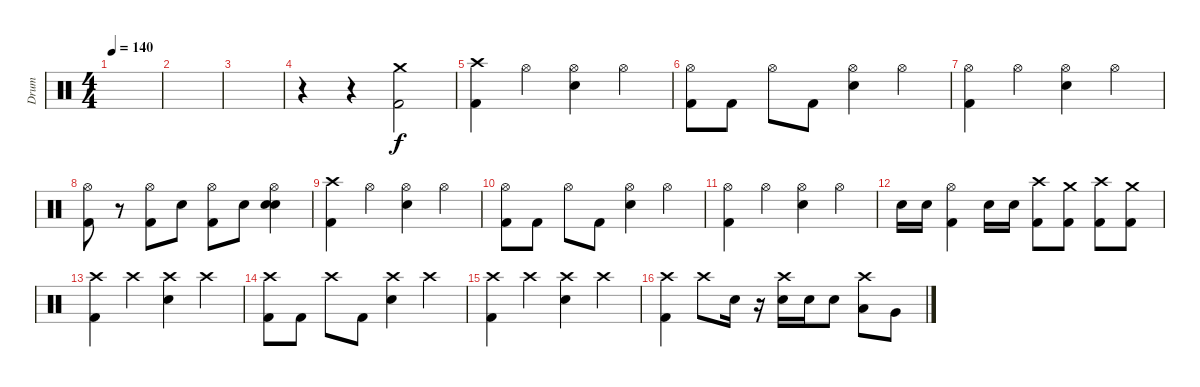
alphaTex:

\track ("Drum" "Drum") {instrument percussion}
\staff {score}
\articulation defaults
\ts (4 4)
\tempo 140
\clef neutral
\ks c
|
|
|
r.4 r.4 ("Crash medium (hit)" "Kick (hit) 2").2 |
("Crash high (hit)" "Kick (hit) 2").4 "Hi-Hat (open)".4 ("Hi-Hat (open)" "Electric Snare (hit)").4 "Hi-Hat (open)".4 |
("Hi-Hat (open)" "Kick (hit) 2").8 "Kick (hit) 2".8 "Hi-Hat (open)".8 "Kick (hit) 2".8 ("Hi-Hat (open)" "Electric Snare (hit)").4 "Hi-Hat (open)".4 |
("Hi-Hat (open)" "Kick (hit) 2").4 "Hi-Hat (open)".4 ("Hi-Hat (open)" "Electric Snare (hit)").4 "Hi-Hat (open)".4 |
("Hi-Hat (open)" "Kick (hit) 2").8 r.8 ("Hi-Hat (open)" "Kick (hit) 2").8 "Electric Snare (hit)".8 ("Hi-Hat (open)" "Kick (hit) 2").8 "Electric Snare (hit)".8 ("Hi-Hat (open)" "Electric Snare (hit)" "Electric Snare (hit)").4 |
("Crash high (hit)" "Kick (hit) 2").4 "Hi-Hat (open)".4 ("Hi-Hat (open)" "Electric Snare (hit)").4 "Hi-Hat (open)".4 |
("Hi-Hat (open)" "Kick (hit) 2").8 "Kick (hit) 2".8 "Hi-Hat (open)".8 "Kick (hit) 2".8 ("Hi-Hat (open)" "Electric Snare (hit)").4 "Hi-Hat (open)".4 |
("Hi-Hat (open)" "Kick (hit) 2").4 "Hi-Hat (open)".4 ("Hi-Hat (open)" "Electric Snare (hit)").4 "Hi-Hat (open)".4 |
"Electric Snare (hit)".16 "Electric Snare (hit)".16 ("Hi-Hat (open)" "Kick (hit) 2").4 "Electric Snare (hit)".16 "Electric Snare (hit)".16 ("Crash high (hit)" "Kick (hit) 2").8 ("Crash medium (hit)" "Kick (hit) 2").8 ("Crash high (hit)" "Kick (hit) 2").8 ("Crash medium (hit)" "Kick (hit) 2").8 |
("Crash high (hit)" "Kick (hit) 2").4 "Crash high (hit)".4 ("Crash high (hit)" "Electric Snare (hit)").4 "Crash high (hit)".4 |
("Crash high (hit)" "Kick (hit) 2").8 "Kick (hit) 2".8 "Crash high (hit)".8 "Kick (hit) 2".8 ("Crash high (hit)" "Electric Snare (hit)").4 "Crash high (hit)".4 |
("Crash high (hit)" "Kick (hit) 2").4 "Crash high (hit)".4 ("Crash high (hit)" "Electric Snare (hit)").4 "Crash high (hit)".4 |
("Crash high (hit)" "Kick (hit) 2").4 "Crash high (hit)".8 "Electric Snare (hit)".16 r.16 ("Crash high (hit)" "Electric Snare (hit)").16 "Electric Snare (hit)".16 "Electric Snare (hit)".8 ("Crash high (hit)" "Low Tom (hit)").8 "Very Low Tom (hit)".8
